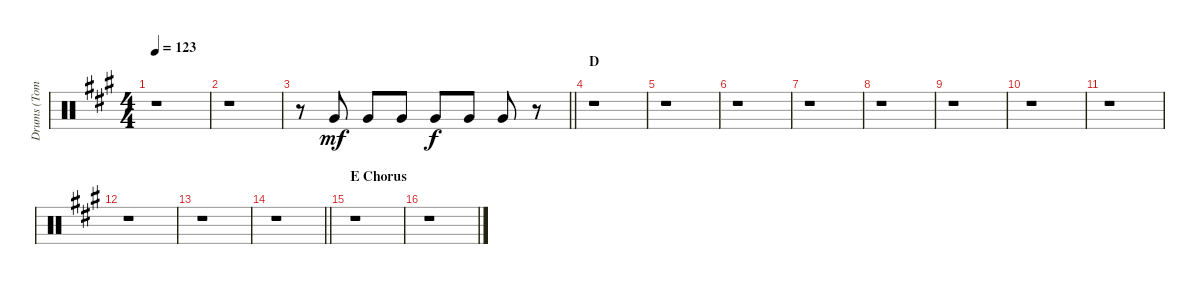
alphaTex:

\track ("Drums (Toms" "Drums (Tom") {instrument percussion}
\staff {score}
\articulation defaults
\ts (4 4)
\tempo 123
\clef neutral
\ks a
r.1{dy f} |
r.1 |
\barLineRight lightlight
r.8 "Very Low Tom (hit)".8{dy mf} "Very Low Tom (hit)".8 "Very Low Tom (hit)".8 "Very Low Tom (hit)".8{dy f} "Very Low Tom (hit)".8 "Very Low Tom (hit)".8 r.8 |
\section ("" "D")
r.1 |
r.1 |
r.1 |
r.1 |
r.1 |
r.1 |
r.1 |
r.1 |
r.1 |
r.1 |
\barLineRight lightlight
r.1 |
\section ("" "E Chorus")
r.1 |
r.1
